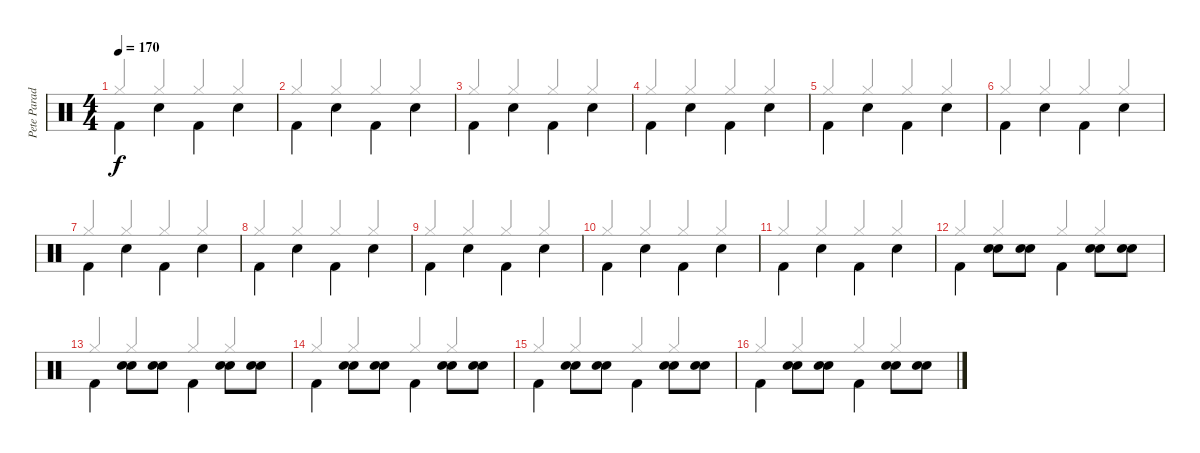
\track ("Pete Parada" "Pete Parad") {instrument percussion}
\staff {score}
\articulation defaults
\voice
\ts (4 4)
\tempo 170
\clef neutral
\ks c "Kick (hit) 2".4{dy f beam Down} "Electric Snare (hit)".4{beam Down} "Kick (hit) 2".4{beam Down} "Electric Snare (hit)".4{beam Down}
|
"Kick (hit) 2".4{beam Down} "Electric Snare (hit)".4{beam Down} "Kick (hit) 2".4{beam Down} "Electric Snare (hit)".4{beam Down} |
"Kick (hit) 2".4{beam Down} "Electric Snare (hit)".4{beam Down} "Kick (hit) 2".4{beam Down} "Electric Snare (hit)".4{beam Down} |
"Kick (hit) 2".4{beam Down} "Electric Snare (hit)".4{beam Down} "Kick (hit) 2".4{beam Down} "Electric Snare (hit)".4{beam Down} |
"Kick (hit) 2".4{beam Down} "Electric Snare (hit)".4{beam Down} "Kick (hit) 2".4{beam Down} "Electric Snare (hit)".4{beam Down} |
"Kick (hit) 2".4{beam Down} "Electric Snare (hit)".4{beam Down} "Kick (hit) 2".4{beam Down} "Electric Snare (hit)".4{beam Down} |
"Kick (hit) 2".4{beam Down} "Electric Snare (hit)".4{beam Down} "Kick (hit) 2".4{beam Down} "Electric Snare (hit)".4{beam Down} |
"Kick (hit) 2".4{beam Down} "Electric Snare (hit)".4{beam Down} "Kick (hit) 2".4{beam Down} "Electric Snare (hit)".4{beam Down} |
"Kick (hit) 2".4{beam Down} "Electric Snare (hit)".4{beam Down} "Kick (hit) 2".4{beam Down} "Electric Snare (hit)".4{beam Down} |
"Kick (hit) 2".4{beam Down} "Electric Snare (hit)".4{beam Down} "Kick (hit) 2".4{beam Down} "Electric Snare (hit)".4{beam Down} |
"Kick (hit) 2".4{beam Down} "Electric Snare (hit)".4{beam Down} "Kick (hit) 2".4{beam Down} "Electric Snare (hit)".4{beam Down} |
"Kick (hit) 2".4{beam Down} ("Electric Snare (hit)" "Electric Snare (hit)").8{beam Down} ("Electric Snare (hit)" "Electric Snare (hit)").8{beam Down} "Kick (hit) 2".4{beam Down} ("Electric Snare (hit)" "Electric Snare (hit)").8{beam Down} ("Electric Snare (hit)" "Electric Snare (hit)").8{beam Down} |
"Kick (hit) 2".4{beam Down} ("Electric Snare (hit)" "Electric Snare (hit)").8{beam Down} ("Electric Snare (hit)" "Electric Snare (hit)").8{beam Down} "Kick (hit) 2".4{beam Down} ("Electric Snare (hit)" "Electric Snare (hit)").8{beam Down} ("Electric Snare (hit)" "Electric Snare (hit)").8{beam Down} |
"Kick (hit) 2".4{beam Down} ("Electric Snare (hit)" "Electric Snare (hit)").8{beam Down} ("Electric Snare (hit)" "Electric Snare (hit)").8{beam Down} "Kick (hit) 2".4{beam Down} ("Electric Snare (hit)" "Electric Snare (hit)").8{beam Down} ("Electric Snare (hit)" "Electric Snare (hit)").8{beam Down} |
"Kick (hit) 2".4{beam Down} ("Electric Snare (hit)" "Electric Snare (hit)").8{beam Down} ("Electric Snare (hit)" "Electric Snare (hit)").8{beam Down} "Kick (hit) 2".4{beam Down} ("Electric Snare (hit)" "Electric Snare (hit)").8{beam Down} ("Electric Snare (hit)" "Electric Snare (hit)").8{beam Down} |
"Kick (hit) 2".4{beam Down} ("Electric Snare (hit)" "Electric Snare (hit)").8{beam Down} ("Electric Snare (hit)" "Electric Snare (hit)").8{beam Down} "Kick (hit) 2".4{beam Down} ("Electric Snare (hit)" "Electric Snare (hit)").8{beam Down} ("Electric Snare (hit)" "Electric Snare (hit)").8{beam Down}
\voice
\clef neutral
\ottava regular
\simile none
\ks c "Hi-Hat (closed)".4{dy f beam Up} "Hi-Hat (closed)".4{beam Up} "Hi-Hat (closed)".4{beam Up} "Hi-Hat (closed)".4{beam Up}
|
"Hi-Hat (closed)".4{beam Up} "Hi-Hat (closed)".4{beam Up} "Hi-Hat (closed)".4{beam Up} "Hi-Hat (closed)".4{beam Up} |
"Hi-Hat (closed)".4{beam Up} "Hi-Hat (closed)".4{beam Up} "Hi-Hat (closed)".4{beam Up} "Hi-Hat (closed)".4{beam Up} |
"Hi-Hat (closed)".4{beam Up} "Hi-Hat (closed)".4{beam Up} "Hi-Hat (closed)".4{beam Up} "Hi-Hat (closed)".4{beam Up} |
"Hi-Hat (closed)".4{beam Up} "Hi-Hat (closed)".4{beam Up} "Hi-Hat (closed)".4{beam Up} "Hi-Hat (closed)".4{beam Up} |
"Hi-Hat (closed)".4{beam Up} "Hi-Hat (closed)".4{beam Up} "Hi-Hat (closed)".4{beam Up} "Hi-Hat (closed)".4{beam Up} |
"Hi-Hat (closed)".4{beam Up} "Hi-Hat (closed)".4{beam Up} "Hi-Hat (closed)".4{beam Up} "Hi-Hat (closed)".4{beam Up} |
"Hi-Hat (closed)".4{beam Up} "Hi-Hat (closed)".4{beam Up} "Hi-Hat (closed)".4{beam Up} "Hi-Hat (closed)".4{beam Up} |
"Hi-Hat (closed)".4{beam Up} "Hi-Hat (closed)".4{beam Up} "Hi-Hat (closed)".4{beam Up} "Hi-Hat (closed)".4{beam Up} |
"Hi-Hat (closed)".4{beam Up} "Hi-Hat (closed)".4{beam Up} "Hi-Hat (closed)".4{beam Up} "Hi-Hat (closed)".4{beam Up} |
"Hi-Hat (closed)".4{beam Up} "Hi-Hat (closed)".4{beam Up} "Hi-Hat (closed)".4{beam Up} "Hi-Hat (closed)".4{beam Up} |
"Hi-Hat (closed)".4{beam Up} "Hi-Hat (closed)".4{beam Up} "Hi-Hat (closed)".4{beam Up} "Hi-Hat (closed)".4{beam Up} |
"Hi-Hat (closed)".4{beam Up} "Hi-Hat (closed)".4{beam Up} "Hi-Hat (closed)".4{beam Up} "Hi-Hat (closed)".4{beam Up} |
"Hi-Hat (closed)".4{beam Up} "Hi-Hat (closed)".4{beam Up} "Hi-Hat (closed)".4{beam Up} "Hi-Hat (closed)".4{beam Up} |
"Hi-Hat (closed)".4{beam Up} "Hi-Hat (closed)".4{beam Up} "Hi-Hat (closed)".4{beam Up} "Hi-Hat (closed)".4{beam Up} |
"Hi-Hat (closed)".4{beam Up} "Hi-Hat (closed)".4{beam Up} "Hi-Hat (closed)".4{beam Up} "Hi-Hat (closed)".4{beam Up}
